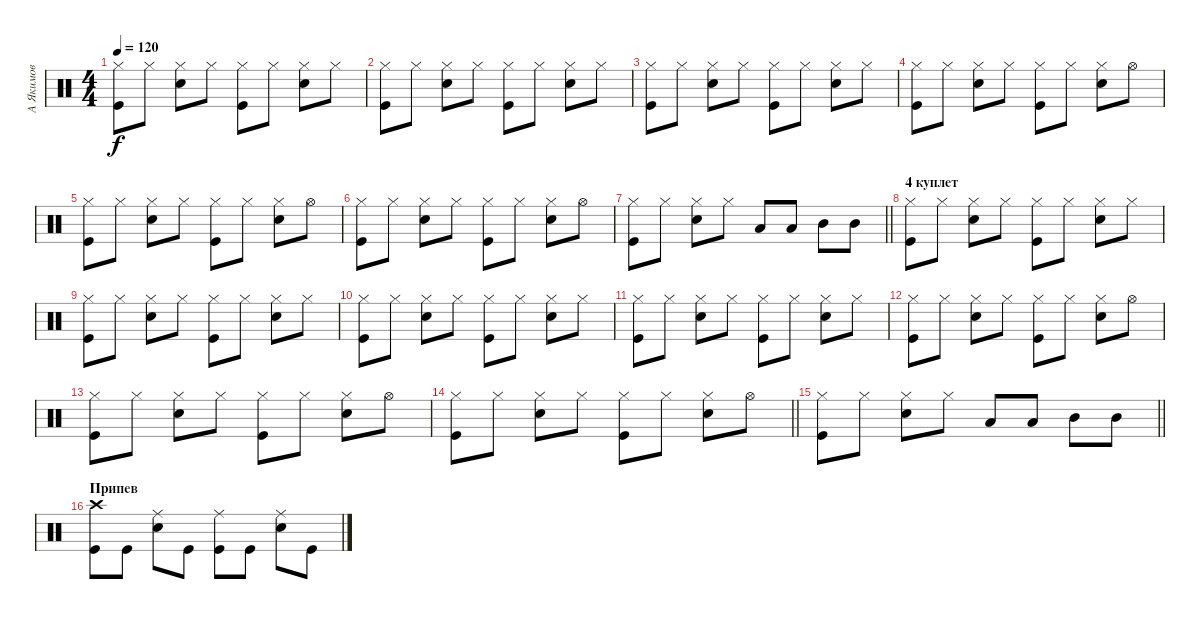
\track ("А Якимов" "А Якимов") {instrument percussion}
\staff {score}
\articulation defaults
\ts (4 4)
\tempo 120
\clef neutral
\ks c
("Hi-Hat (closed)" "Kick (hit)").8{dy f} "Hi-Hat (closed)".8 ("Hi-Hat (closed)" "Snare (hit) 2").8 "Hi-Hat (closed)".8 ("Hi-Hat (closed)" "Kick (hit)").8 "Hi-Hat (closed)".8 ("Hi-Hat (closed)" "Snare (hit) 2").8 "Hi-Hat (closed)".8 |
("Hi-Hat (closed)" "Kick (hit)").8 "Hi-Hat (closed)".8 ("Hi-Hat (closed)" "Snare (hit) 2").8 "Hi-Hat (closed)".8 ("Hi-Hat (closed)" "Kick (hit)").8 "Hi-Hat (closed)".8 ("Hi-Hat (closed)" "Snare (hit) 2").8 "Hi-Hat (closed)".8 |
("Hi-Hat (closed)" "Kick (hit)").8 "Hi-Hat (closed)".8 ("Hi-Hat (closed)" "Snare (hit) 2").8 "Hi-Hat (closed)".8 ("Hi-Hat (closed)" "Kick (hit)").8 "Hi-Hat (closed)".8 ("Hi-Hat (closed)" "Snare (hit) 2").8 "Hi-Hat (closed)".8 |
("Hi-Hat (closed)" "Kick (hit)").8 "Hi-Hat (closed)".8 ("Hi-Hat (closed)" "Snare (hit) 2").8 "Hi-Hat (closed)".8 ("Hi-Hat (closed)" "Kick (hit)").8 "Hi-Hat (closed)".8 ("Hi-Hat (closed)" "Snare (hit) 2").8 "Hi-Hat (open)".8 |
("Hi-Hat (closed)" "Kick (hit)").8 "Hi-Hat (closed)".8 ("Hi-Hat (closed)" "Snare (hit) 2").8 "Hi-Hat (closed)".8 ("Hi-Hat (closed)" "Kick (hit)").8 "Hi-Hat (closed)".8 ("Snare (hit) 2" "Hi-Hat (closed)").8 "Hi-Hat (open)".8 |
("Hi-Hat (closed)" "Kick (hit)").8 "Hi-Hat (closed)".8 ("Hi-Hat (closed)" "Snare (hit) 2").8 "Hi-Hat (closed)".8 ("Hi-Hat (closed)" "Kick (hit)").8 "Hi-Hat (closed)".8 ("Snare (hit) 2" "Hi-Hat (closed)").8 "Hi-Hat (open)".8 |
\barLineRight lightlight
("Hi-Hat (closed)" "Kick (hit)").8 "Hi-Hat (closed)".8 ("Hi-Hat (closed)" "Snare (hit) 2").8 "Hi-Hat (closed)".8 "Low Tom (hit)".8 "Low Tom (hit)".8 "Mid Tom (hit)".8 "Mid Tom (hit)".8 |
\section ("" "4 куплет")
("Hi-Hat (closed)" "Kick (hit)").8 "Hi-Hat (closed)".8 ("Hi-Hat (closed)" "Snare (hit) 2").8 "Hi-Hat (closed)".8 ("Hi-Hat (closed)" "Kick (hit)").8 "Hi-Hat (closed)".8 ("Hi-Hat (closed)" "Snare (hit) 2").8 "Hi-Hat (closed)".8 |
("Hi-Hat (closed)" "Kick (hit)").8 "Hi-Hat (closed)".8 ("Hi-Hat (closed)" "Snare (hit) 2").8 "Hi-Hat (closed)".8 ("Hi-Hat (closed)" "Kick (hit)").8 "Hi-Hat (closed)".8 ("Hi-Hat (closed)" "Snare (hit) 2").8 "Hi-Hat (closed)".8 |
("Hi-Hat (closed)" "Kick (hit)").8 "Hi-Hat (closed)".8 ("Hi-Hat (closed)" "Snare (hit) 2").8 "Hi-Hat (closed)".8 ("Hi-Hat (closed)" "Kick (hit)").8 "Hi-Hat (closed)".8 ("Hi-Hat (closed)" "Snare (hit) 2").8 "Hi-Hat (closed)".8 |
("Hi-Hat (closed)" "Kick (hit)").8 "Hi-Hat (closed)".8 ("Hi-Hat (closed)" "Snare (hit) 2").8 "Hi-Hat (closed)".8 ("Hi-Hat (closed)" "Kick (hit)").8 "Hi-Hat (closed)".8 ("Hi-Hat (closed)" "Snare (hit) 2").8 "Hi-Hat (closed)".8 |
("Hi-Hat (closed)" "Kick (hit)").8 "Hi-Hat (closed)".8 ("Hi-Hat (closed)" "Snare (hit) 2").8 "Hi-Hat (closed)".8 ("Hi-Hat (closed)" "Kick (hit)").8 "Hi-Hat (closed)".8 ("Hi-Hat (closed)" "Snare (hit) 2").8 "Hi-Hat (open)".8 |
("Hi-Hat (closed)" "Kick (hit)").8 "Hi-Hat (closed)".8 ("Hi-Hat (closed)" "Snare (hit) 2").8 "Hi-Hat (closed)".8 ("Hi-Hat (closed)" "Kick (hit)").8 "Hi-Hat (closed)".8 ("Snare (hit) 2" "Hi-Hat (closed)").8 "Hi-Hat (open)".8 |
\barLineRight lightlight
("Hi-Hat (closed)" "Kick (hit)").8 "Hi-Hat (closed)".8 ("Hi-Hat (closed)" "Snare (hit) 2").8 "Hi-Hat (closed)".8 ("Hi-Hat (closed)" "Kick (hit)").8 "Hi-Hat (closed)".8 ("Snare (hit) 2" "Hi-Hat (closed)").8 "Hi-Hat (open)".8 |
\barLineRight lightlight
("Hi-Hat (closed)" "Kick (hit)").8 "Hi-Hat (closed)".8 ("Hi-Hat (closed)" "Snare (hit) 2").8 "Hi-Hat (closed)".8 "Low Tom (hit)".8 "Low Tom (hit)".8 "Mid Tom (hit)".8 "Mid Tom (hit)".8 |
\section ("" "Припев")
("Crash high (hit)" "Kick (hit)").8 "Kick (hit)".8 ("Ride (middle)" "Snare (hit) 2").8 "Kick (hit)".8 ("Ride (middle)" "Kick (hit)").8 "Kick (hit)".8 ("Ride (middle)" "Snare (hit) 2").8 "Kick (hit)".8
